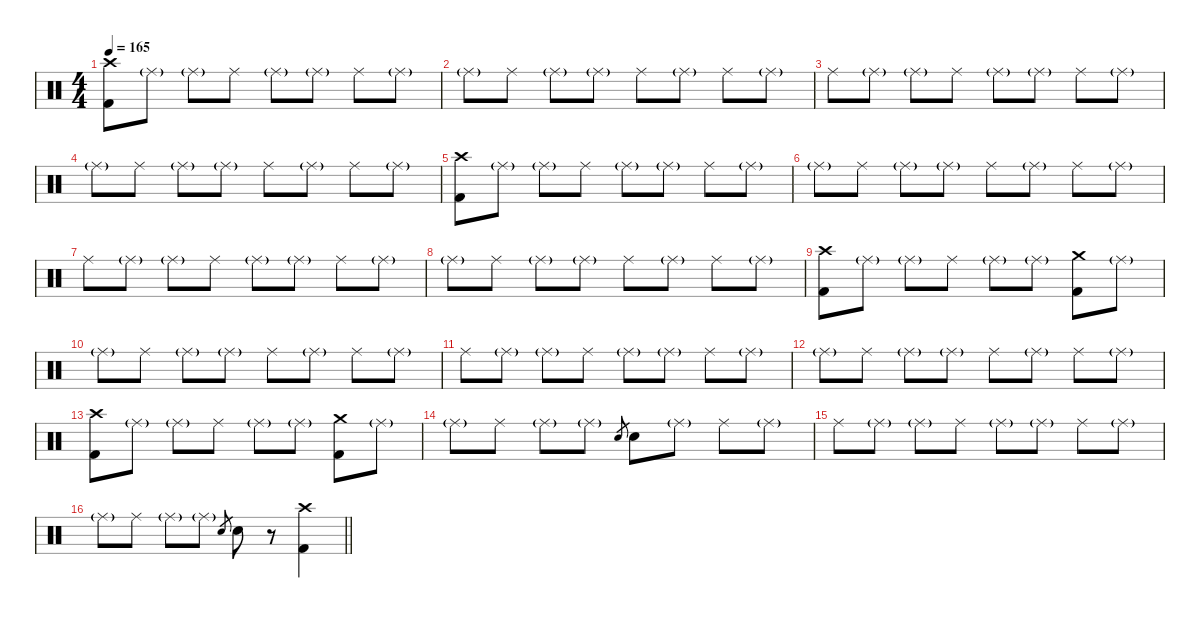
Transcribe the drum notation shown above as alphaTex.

\defaultSystemsLayout 4
\hideDynamics
\bracketExtendMode nobrackets
\singleTrackTrackNamePolicy hidden
\multiTrackTrackNamePolicy hidden
\firstSystemTrackNameMode fullname
\otherSystemsTrackNameOrientation horizontal
\track ("Marty Chapman (Drums)" "drm.") {instrument percussion}
\staff {score}
\articulation defaults
\ts (4 4)
\tempo 165
\clef neutral
\ks c
("Crash high (hit)" "Kick (hit) 2").8{dy f beam Down} "Ride (middle)"{g}.8{beam Down} "Ride (middle)"{g}.8{beam Down} "Ride (middle)".8{beam Down} "Ride (middle)"{g}.8{beam Down} "Ride (middle)"{g}.8{beam Down} "Ride (middle)".8{beam Down} "Ride (middle)"{g}.8{beam Down} |
"Ride (middle)"{g}.8{beam Down} "Ride (middle)".8{beam Down} "Ride (middle)"{g}.8{beam Down} "Ride (middle)"{g}.8{beam Down} "Ride (middle)".8{beam Down} "Ride (middle)"{g}.8{beam Down} "Ride (middle)".8{beam Down} "Ride (middle)"{g}.8{beam Down} |
"Ride (middle)".8{beam Down} "Ride (middle)"{g}.8{beam Down} "Ride (middle)"{g}.8{beam Down} "Ride (middle)".8{beam Down} "Ride (middle)"{g}.8{beam Down} "Ride (middle)"{g}.8{beam Down} "Ride (middle)".8{beam Down} "Ride (middle)"{g}.8{beam Down} |
"Ride (middle)"{g}.8{beam Down} "Ride (middle)".8{beam Down} "Ride (middle)"{g}.8{beam Down} "Ride (middle)"{g}.8{beam Down} "Ride (middle)".8{beam Down} "Ride (middle)"{g}.8{beam Down} "Ride (middle)".8{beam Down} "Ride (middle)"{g}.8{beam Down} |
("Crash high (hit)" "Kick (hit) 2").8{beam Down} "Ride (middle)"{g}.8{beam Down} "Ride (middle)"{g}.8{beam Down} "Ride (middle)".8{beam Down} "Ride (middle)"{g}.8{beam Down} "Ride (middle)"{g}.8{beam Down} "Ride (middle)".8{beam Down} "Ride (middle)"{g}.8{beam Down} |
"Ride (middle)"{g}.8{beam Down} "Ride (middle)".8{beam Down} "Ride (middle)"{g}.8{beam Down} "Ride (middle)"{g}.8{beam Down} "Ride (middle)".8{beam Down} "Ride (middle)"{g}.8{beam Down} "Ride (middle)".8{beam Down} "Ride (middle)"{g}.8{beam Down} |
"Ride (middle)".8{beam Down} "Ride (middle)"{g}.8{beam Down} "Ride (middle)"{g}.8{beam Down} "Ride (middle)".8{beam Down} "Ride (middle)"{g}.8{beam Down} "Ride (middle)"{g}.8{beam Down} "Ride (middle)".8{beam Down} "Ride (middle)"{g}.8{beam Down} |
"Ride (middle)"{g}.8{beam Down} "Ride (middle)".8{beam Down} "Ride (middle)"{g}.8{beam Down} "Ride (middle)"{g}.8{beam Down} "Ride (middle)".8{beam Down} "Ride (middle)"{g}.8{beam Down} "Ride (middle)".8{beam Down} "Ride (middle)"{g}.8{beam Down} |
("Crash high (hit)" "Kick (hit) 2").8{beam Down} "Ride (middle)"{g}.8{beam Down} "Ride (middle)"{g}.8{beam Down} "Ride (middle)".8{beam Down} "Ride (middle)"{g}.8{beam Down} "Ride (middle)"{g}.8{beam Down} ("Crash medium (hit)" "Kick (hit) 2").8{beam Down} "Ride (middle)"{g}.8{beam Down} |
"Ride (middle)"{g}.8{beam Down} "Ride (middle)".8{beam Down} "Ride (middle)"{g}.8{beam Down} "Ride (middle)"{g}.8{beam Down} "Ride (middle)".8{beam Down} "Ride (middle)"{g}.8{beam Down} "Ride (middle)".8{beam Down} "Ride (middle)"{g}.8{beam Down} |
"Ride (middle)".8{beam Down} "Ride (middle)"{g}.8{beam Down} "Ride (middle)"{g}.8{beam Down} "Ride (middle)".8{beam Down} "Ride (middle)"{g}.8{beam Down} "Ride (middle)"{g}.8{beam Down} "Ride (middle)".8{beam Down} "Ride (middle)"{g}.8{beam Down} |
"Ride (middle)"{g}.8{beam Down} "Ride (middle)".8{beam Down} "Ride (middle)"{g}.8{beam Down} "Ride (middle)"{g}.8{beam Down} "Ride (middle)".8{beam Down} "Ride (middle)"{g}.8{beam Down} "Ride (middle)".8{beam Down} "Ride (middle)"{g}.8{beam Down} |
("Crash high (hit)" "Kick (hit) 2").8{beam Down} "Ride (middle)"{g}.8{beam Down} "Ride (middle)"{g}.8{beam Down} "Ride (middle)".8{beam Down} "Ride (middle)"{g}.8{beam Down} "Ride (middle)"{g}.8{beam Down} ("Crash medium (hit)" "Kick (hit) 2").8{beam Down} "Ride (middle)"{g}.8{beam Down} |
"Ride (middle)"{g}.8{beam Down} "Ride (middle)".8{beam Down} "Ride (middle)"{g}.8{beam Down} "Ride (middle)"{g}.8{beam Down} "Electric Snare (hit)".8{gr dy mf beam Up} "Snare (hit) 2".8{dy f beam Down} "Ride (middle)"{g}.8{beam Down} "Ride (middle)".8{beam Down} "Ride (middle)"{g}.8{beam Down} |
"Ride (middle)".8{beam Down} "Ride (middle)"{g}.8{beam Down} "Ride (middle)"{g}.8{beam Down} "Ride (middle)".8{beam Down} "Ride (middle)"{g}.8{beam Down} "Ride (middle)"{g}.8{beam Down} "Ride (middle)".8{beam Down} "Ride (middle)"{g}.8{beam Down} |
\barLineRight lightlight "Ride (middle)"{g}.8{beam Down} "Ride (middle)".8{beam Down} "Ride (middle)"{g}.8{beam Down} "Ride (middle)"{g}.8{beam Down} "Electric Snare (hit)".8{gr dy mf beam Up} "Snare (hit) 2".8{dy f beam Down}
r.8{beam Down} ("Crash high (hit)" "Kick (hit) 2").4{beam Down}
